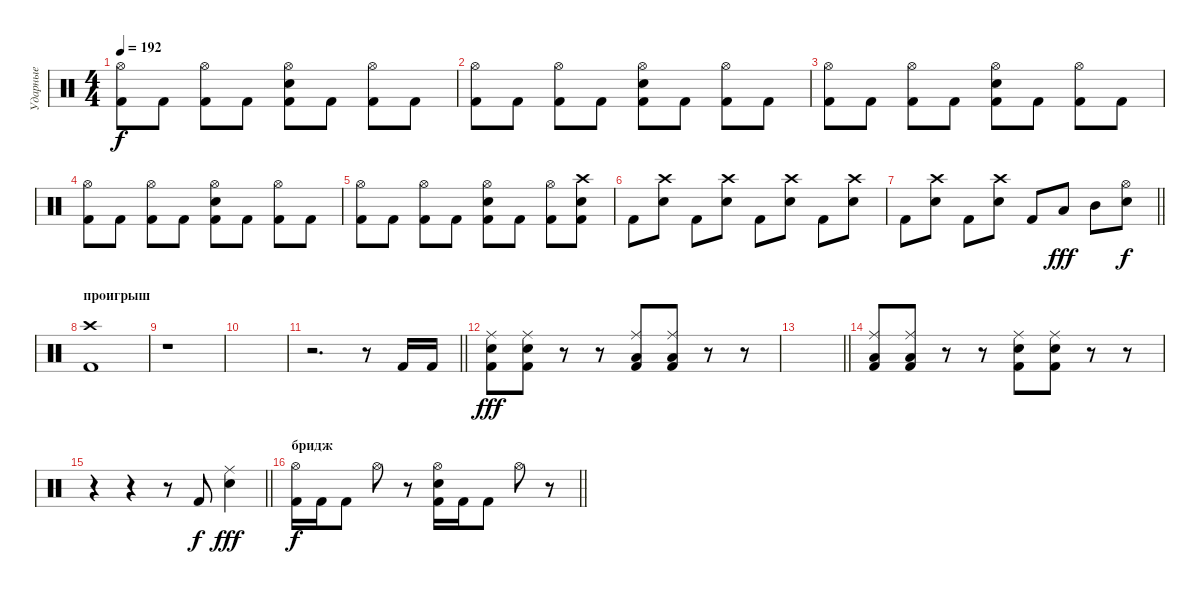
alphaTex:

\track ("Ударные" "Ударные") {instrument percussion}
\staff {score}
\articulation defaults
\ts (4 4)
\tempo 192
\clef neutral
\ks c
("Hi-Hat (open)" "Kick (hit) 2").8{dy f} "Kick (hit) 2".8 ("Hi-Hat (open)" "Kick (hit) 2").8 "Kick (hit) 2".8 ("Hi-Hat (open)" "Electric Snare (hit)" "Kick (hit) 2").8 "Kick (hit) 2".8 ("Hi-Hat (open)" "Kick (hit) 2").8 "Kick (hit) 2".8 |
("Hi-Hat (open)" "Kick (hit) 2").8 "Kick (hit) 2".8 ("Hi-Hat (open)" "Kick (hit) 2").8 "Kick (hit) 2".8 ("Hi-Hat (open)" "Electric Snare (hit)" "Kick (hit) 2").8 "Kick (hit) 2".8 ("Hi-Hat (open)" "Kick (hit) 2").8 "Kick (hit) 2".8 |
("Hi-Hat (open)" "Kick (hit) 2").8 "Kick (hit) 2".8 ("Hi-Hat (open)" "Kick (hit) 2").8 "Kick (hit) 2".8 ("Hi-Hat (open)" "Electric Snare (hit)" "Kick (hit) 2").8 "Kick (hit) 2".8 ("Hi-Hat (open)" "Kick (hit) 2").8 "Kick (hit) 2".8 |
("Hi-Hat (open)" "Kick (hit) 2").8 "Kick (hit) 2".8 ("Hi-Hat (open)" "Kick (hit) 2").8 "Kick (hit) 2".8 ("Hi-Hat (open)" "Electric Snare (hit)" "Kick (hit) 2").8 "Kick (hit) 2".8 ("Hi-Hat (open)" "Kick (hit) 2").8 "Kick (hit) 2".8 |
("Hi-Hat (open)" "Kick (hit) 2").8 "Kick (hit) 2".8 ("Hi-Hat (open)" "Kick (hit) 2").8 "Kick (hit) 2".8 ("Hi-Hat (open)" "Electric Snare (hit)" "Kick (hit) 2").8 "Kick (hit) 2".8 ("Hi-Hat (open)" "Kick (hit) 2").8 ("Crash high (hit)" "Electric Snare (hit)" "Kick (hit) 2").8 |
"Kick (hit) 2".8 ("Crash high (hit)" "Electric Snare (hit)").8 "Kick (hit) 2".8 ("Crash high (hit)" "Electric Snare (hit)").8 "Kick (hit) 2".8 ("Crash high (hit)" "Electric Snare (hit)").8 "Kick (hit) 2".8 ("Crash high (hit)" "Electric Snare (hit)").8 |
\barLineRight lightlight "Kick (hit) 2".8
("Crash high (hit)" "Electric Snare (hit)").8 "Kick (hit) 2".8 ("Crash high (hit)" "Electric Snare (hit)").8 "Kick (hit) 2".8 "Low Tom (hit)".8{dy fff} "Mid Tom (hit)".8 ("Hi-Hat (open)" "Electric Snare (hit)").8{dy f} |
\section ("" "проигрыш")
("Crash high (hit)" "Kick (hit) 2").1 |
r.1 |
|
\barLineRight lightlight
r.2{d} r.8 "Kick (hit) 2".16 "Kick (hit) 2".16 |
("Ride (middle)" "Electric Snare (hit)" "Kick (hit) 2").8{dy fff} ("Ride (middle)" "Electric Snare (hit)" "Kick (hit) 2").8 r.8 r.8 ("Ride (middle)" "Low Floor Tom (hit)" "Kick (hit) 2").8 ("Ride (middle)" "Low Floor Tom (hit)" "Kick (hit) 2").8 r.8 r.8 |
\barLineRight lightlight
|
("Ride (middle)" "Low Floor Tom (hit)" "Kick (hit) 2").8 ("Ride (middle)" "Low Floor Tom (hit)" "Kick (hit) 2").8 r.8 r.8 ("Ride (middle)" "Electric Snare (hit)" "Kick (hit) 2").8 ("Ride (middle)" "Electric Snare (hit)" "Kick (hit) 2").8 r.8 r.8 |
\barLineRight lightlight
r.4 r.4 r.8 "Kick (hit) 2".8{dy f} ("Ride (middle)" "Electric Snare (hit)").4{dy fff} |
\section ("" "бридж")
\barLineRight lightlight
("Hi-Hat (open)" "Kick (hit) 2").16{dy f} "Kick (hit) 2".16 "Kick (hit) 2".8 "Hi-Hat (open)".8 r.8 ("Hi-Hat (open)" "Electric Snare (hit)" "Kick (hit) 2").16 "Kick (hit) 2".16 "Kick (hit) 2".8 "Hi-Hat (open)".8 r.8
